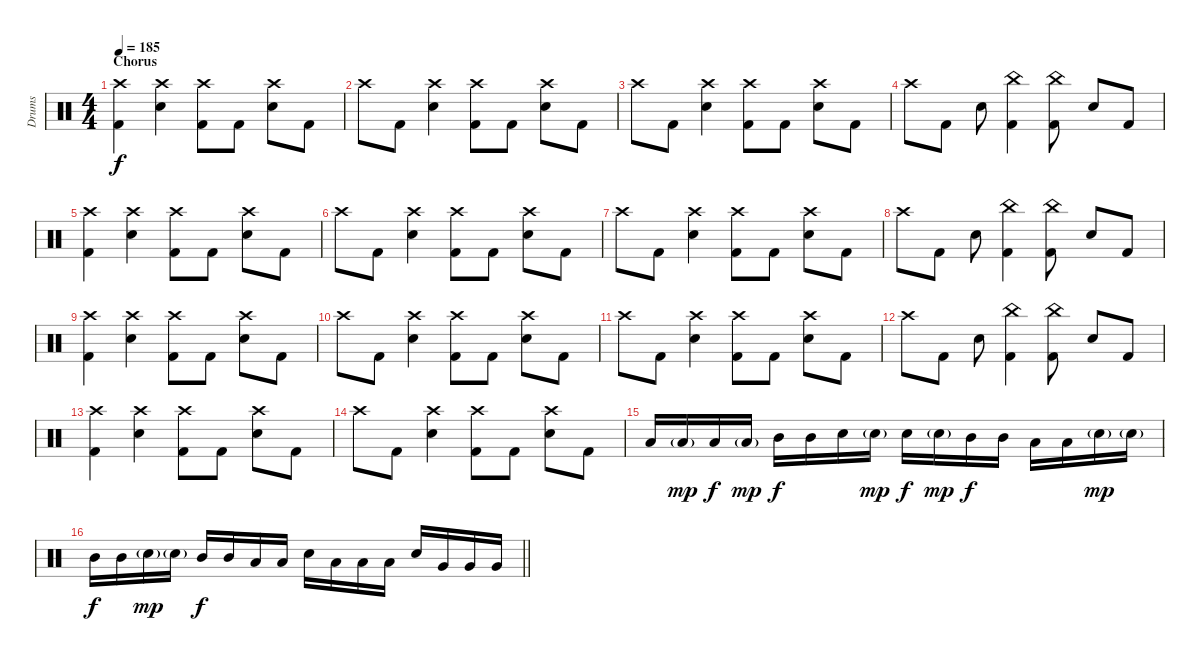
\track ("Drums" "Drums") {instrument percussion}
\staff {score}
\articulation defaults
\ts (4 4)
\section ("" "Chorus")
\tempo 185
\clef neutral
\ks c
("Crash high (hit)" "Kick (hit) 2").4{dy f} ("Crash high (hit)" "Electric Snare (hit)").4 ("Crash high (hit)" "Kick (hit) 2").8 "Kick (hit) 2".8 ("Crash high (hit)" "Electric Snare (hit)").8 "Kick (hit) 2".8 |
"Crash high (hit)".8 "Kick (hit) 2".8 ("Crash high (hit)" "Electric Snare (hit)").4 ("Crash high (hit)" "Kick (hit) 2").8 "Kick (hit) 2".8 ("Crash high (hit)" "Electric Snare (hit)").8 "Kick (hit) 2".8 |
"Crash high (hit)".8 "Kick (hit) 2".8 ("Crash high (hit)" "Electric Snare (hit)").4 ("Crash high (hit)" "Kick (hit) 2").8 "Kick (hit) 2".8 ("Crash high (hit)" "Electric Snare (hit)").8 "Kick (hit) 2".8 |
"Crash high (hit)".8 "Kick (hit) 2".8 "Electric Snare (hit)".8 ("China (hit)" "Kick (hit) 2").4 ("China (hit)" "Kick (hit) 2").8 "Electric Snare (hit)".8 "Kick (hit) 2".8 |
("Crash high (hit)" "Kick (hit) 2").4 ("Crash high (hit)" "Electric Snare (hit)").4 ("Crash high (hit)" "Kick (hit) 2").8 "Kick (hit) 2".8 ("Crash high (hit)" "Electric Snare (hit)").8 "Kick (hit) 2".8 |
"Crash high (hit)".8 "Kick (hit) 2".8 ("Crash high (hit)" "Electric Snare (hit)").4 ("Crash high (hit)" "Kick (hit) 2").8 "Kick (hit) 2".8 ("Crash high (hit)" "Electric Snare (hit)").8 "Kick (hit) 2".8 |
"Crash high (hit)".8 "Kick (hit) 2".8 ("Crash high (hit)" "Electric Snare (hit)").4 ("Crash high (hit)" "Kick (hit) 2").8 "Kick (hit) 2".8 ("Crash high (hit)" "Electric Snare (hit)").8 "Kick (hit) 2".8 |
"Crash high (hit)".8 "Kick (hit) 2".8 "Electric Snare (hit)".8 ("China (hit)" "Kick (hit) 2").4 ("China (hit)" "Kick (hit) 2").8 "Electric Snare (hit)".8 "Kick (hit) 2".8 |
("Crash high (hit)" "Kick (hit) 2").4 ("Crash high (hit)" "Electric Snare (hit)").4 ("Crash high (hit)" "Kick (hit) 2").8 "Kick (hit) 2".8 ("Crash high (hit)" "Electric Snare (hit)").8 "Kick (hit) 2".8 |
"Crash high (hit)".8 "Kick (hit) 2".8 ("Crash high (hit)" "Electric Snare (hit)").4 ("Crash high (hit)" "Kick (hit) 2").8 "Kick (hit) 2".8 ("Crash high (hit)" "Electric Snare (hit)").8 "Kick (hit) 2".8 |
"Crash high (hit)".8 "Kick (hit) 2".8 ("Crash high (hit)" "Electric Snare (hit)").4 ("Crash high (hit)" "Kick (hit) 2").8 "Kick (hit) 2".8 ("Crash high (hit)" "Electric Snare (hit)").8 "Kick (hit) 2".8 |
"Crash high (hit)".8 "Kick (hit) 2".8 "Electric Snare (hit)".8 ("China (hit)" "Kick (hit) 2").4 ("China (hit)" "Kick (hit) 2").8 "Electric Snare (hit)".8 "Kick (hit) 2".8 |
("Crash high (hit)" "Kick (hit) 2").4 ("Crash high (hit)" "Electric Snare (hit)").4 ("Crash high (hit)" "Kick (hit) 2").8 "Kick (hit) 2".8 ("Crash high (hit)" "Electric Snare (hit)").8 "Kick (hit) 2".8 |
"Crash high (hit)".8 "Kick (hit) 2".8 ("Crash high (hit)" "Electric Snare (hit)").4 ("Crash high (hit)" "Kick (hit) 2").8 "Kick (hit) 2".8 ("Crash high (hit)" "Electric Snare (hit)").8 "Kick (hit) 2".8 |
"Low Tom (hit)".16 "Low Tom (hit)"{g}.16{dy mp} "Low Tom (hit)".16{dy f} "Low Tom (hit)"{g}.16{dy mp} "Mid Tom (hit)".16{dy f} "Mid Tom (hit)".16 "Electric Snare (hit)".16 "Electric Snare (hit)"{g}.16{dy mp} "Electric Snare (hit)".16{dy f} "Electric Snare (hit)"{g}.16{dy mp} "Mid Tom (hit)".16{dy f} "Mid Tom (hit)".16 "Low Tom (hit)".16 "Low Tom (hit)".16 "Electric Snare (hit)"{g}.16{dy mp} "Electric Snare (hit)"{g}.16 |
\barLineRight lightlight "Mid Tom (hit)".16{dy f} "Mid Tom (hit)".16 "Electric Snare (hit)"{g}.16{dy mp} "Electric Snare (hit)"{g}.16 "Mid Tom (hit)".16{dy f} "Mid Tom (hit)".16 "Low Tom (hit)".16 "Low Tom (hit)".16 "Electric Snare (hit)".16 "Low Tom (hit)".16 "Low Tom (hit)".16 "Low Tom (hit)".16 "Electric Snare (hit)".16 "Very Low Tom (hit)".16 "Very Low Tom (hit)".16 "Very Low Tom (hit)".16
